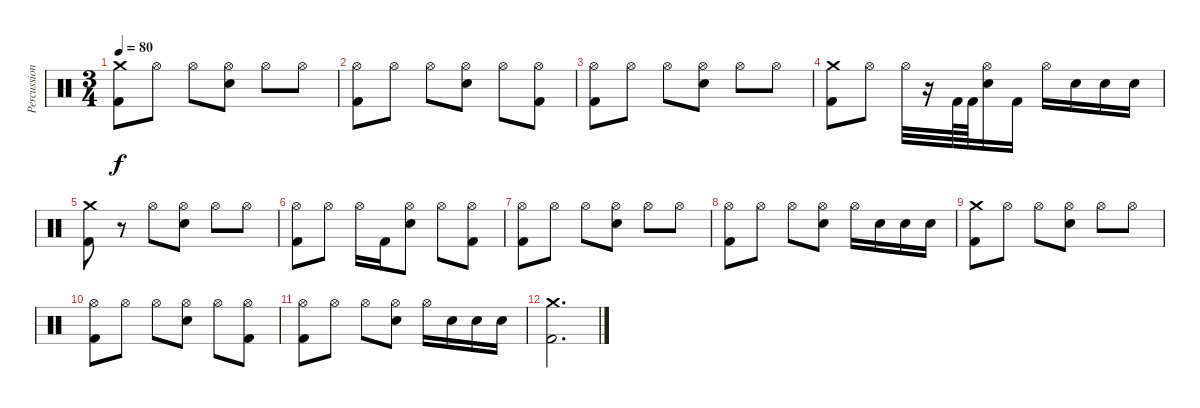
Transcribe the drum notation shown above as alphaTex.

\track ("Percussion" "Percussion") {instrument percussion}
\staff {score}
\articulation defaults
\ts (3 4)
\tempo 80
\clef neutral
\ks c
("Crash medium (hit)" "Kick (hit) 2").8{dy f} "Hi-Hat (open)".8 "Hi-Hat (open)".8 ("Hi-Hat (open)" "Snare (hit) 2").8 "Hi-Hat (open)".8 "Hi-Hat (open)".8 |
("Hi-Hat (open)" "Kick (hit) 2").8 "Hi-Hat (open)".8 "Hi-Hat (open)".8 ("Hi-Hat (open)" "Snare (hit) 2").8 "Hi-Hat (open)".8 ("Hi-Hat (open)" "Kick (hit) 2").8 |
("Hi-Hat (open)" "Kick (hit) 2").8 "Hi-Hat (open)".8 "Hi-Hat (open)".8 ("Hi-Hat (open)" "Snare (hit) 2").8 "Hi-Hat (open)".8 "Hi-Hat (open)".8 |
("Crash medium (hit)" "Kick (hit) 2").8 "Hi-Hat (open)".8 "Hi-Hat (open)".32 r.16 "Kick (hit) 2".64 "Kick (hit) 2".64 ("Hi-Hat (open)" "Snare (hit) 2").16 "Kick (hit) 2".16 "Hi-Hat (open)".16 "Snare (hit) 2".16 "Snare (hit) 2".16 "Snare (hit) 2".16 |
("Crash medium (hit)" "Kick (hit) 2").8 r.8 "Hi-Hat (open)".8 ("Hi-Hat (open)" "Snare (hit) 2").8 "Hi-Hat (open)".8 "Hi-Hat (open)".8 |
("Hi-Hat (open)" "Kick (hit) 2").8 "Hi-Hat (open)".8 "Hi-Hat (open)".16 "Kick (hit) 2".16 ("Hi-Hat (open)" "Snare (hit) 2").8 "Hi-Hat (open)".8 ("Hi-Hat (open)" "Kick (hit) 2").8 |
("Hi-Hat (open)" "Kick (hit) 2").8 "Hi-Hat (open)".8 "Hi-Hat (open)".8 ("Hi-Hat (open)" "Snare (hit) 2").8 "Hi-Hat (open)".8 "Hi-Hat (open)".8 |
("Hi-Hat (open)" "Kick (hit) 2").8 "Hi-Hat (open)".8 "Hi-Hat (open)".8 ("Hi-Hat (open)" "Snare (hit) 2").8 "Hi-Hat (open)".16 "Snare (hit) 2".16 "Snare (hit) 2".16 "Snare (hit) 2".16 |
("Crash medium (hit)" "Kick (hit) 2").8 "Hi-Hat (open)".8 "Hi-Hat (open)".8 ("Hi-Hat (open)" "Snare (hit) 2").8 "Hi-Hat (open)".8 "Hi-Hat (open)".8 |
("Hi-Hat (open)" "Kick (hit) 2").8 "Hi-Hat (open)".8 "Hi-Hat (open)".8 ("Hi-Hat (open)" "Snare (hit) 2").8 "Hi-Hat (open)".8 ("Hi-Hat (open)" "Kick (hit) 2").8 |
("Hi-Hat (open)" "Kick (hit) 2").8 "Hi-Hat (open)".8 "Hi-Hat (open)".8 ("Hi-Hat (open)" "Snare (hit) 2").8 "Hi-Hat (open)".16 "Snare (hit) 2".16 "Snare (hit) 2".16 "Snare (hit) 2".16 |
("Crash medium (hit)" "Kick (hit) 2").2{d}
